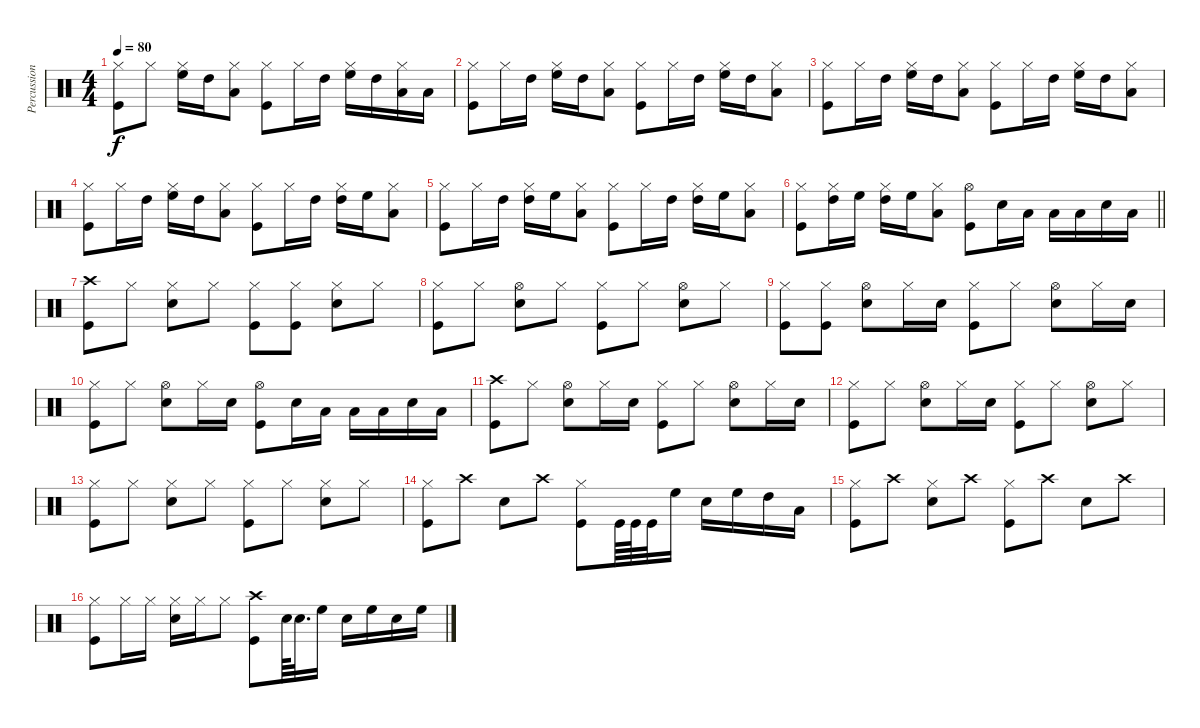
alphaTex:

\track ("Percussion" "Percussion") {instrument percussion}
\staff {score}
\articulation defaults
\ts (4 4)
\tempo 80
\clef neutral
\ks c
("Hi-Hat (closed)" "Kick (hit)").8{dy f} "Hi-Hat (closed)".8 ("Hi-Hat (closed)" "High Floor Tom (hit)").16 "High Tom (hit)".16 ("Hi-Hat (closed)" "Low Tom (hit)").8 ("Hi-Hat (closed)" "Kick (hit)").8 "Hi-Hat (closed)".16 "High Tom (hit)".16 ("Hi-Hat (closed)" "High Floor Tom (hit)").16 "High Tom (hit)".16 ("Hi-Hat (closed)" "Low Tom (hit)").16 "Low Tom (hit)".16 |
("Hi-Hat (closed)" "Kick (hit)").8 "Hi-Hat (closed)".16 "High Tom (hit)".16 ("Hi-Hat (closed)" "High Floor Tom (hit)").16 "High Tom (hit)".16 ("Hi-Hat (closed)" "Low Tom (hit)").8 ("Hi-Hat (closed)" "Kick (hit)").8 "Hi-Hat (closed)".16 "High Tom (hit)".16 ("Hi-Hat (closed)" "High Floor Tom (hit)").16 "High Tom (hit)".16 ("Hi-Hat (closed)" "Low Tom (hit)").8 |
("Hi-Hat (closed)" "Kick (hit)").8 "Hi-Hat (closed)".16 "High Tom (hit)".16 ("Hi-Hat (closed)" "High Floor Tom (hit)").16 "High Tom (hit)".16 ("Hi-Hat (closed)" "Low Tom (hit)").8 ("Hi-Hat (closed)" "Kick (hit)").8 "Hi-Hat (closed)".16 "High Tom (hit)".16 ("Hi-Hat (closed)" "High Floor Tom (hit)").16 "High Tom (hit)".16 ("Hi-Hat (closed)" "Low Tom (hit)").8 |
("Hi-Hat (closed)" "Kick (hit)").8 "Hi-Hat (closed)".16 "High Tom (hit)".16 ("Hi-Hat (closed)" "High Floor Tom (hit)").16 "High Tom (hit)".16 ("Hi-Hat (closed)" "Low Tom (hit)").8 ("Hi-Hat (closed)" "Kick (hit)").8 "Hi-Hat (closed)".16 "High Tom (hit)".16 ("Hi-Hat (closed)" "High Tom (hit)").16 "High Floor Tom (hit)".16 ("Hi-Hat (closed)" "Low Tom (hit)").8 |
("Hi-Hat (closed)" "Kick (hit)").8 "Hi-Hat (closed)".16 "High Tom (hit)".16 ("Hi-Hat (closed)" "High Tom (hit)").16 "High Floor Tom (hit)".16 ("Hi-Hat (closed)" "Low Tom (hit)").8 ("Hi-Hat (closed)" "Kick (hit)").8 "Hi-Hat (closed)".16 "High Tom (hit)".16 ("Hi-Hat (closed)" "High Tom (hit)").16 "High Floor Tom (hit)".16 ("Hi-Hat (closed)" "Low Tom (hit)").8 |
\barLineRight lightlight
("Hi-Hat (closed)" "Kick (hit)").8 ("Hi-Hat (closed)" "High Tom (hit)").16 "High Floor Tom (hit)".16 ("Hi-Hat (closed)" "High Tom (hit)").16 "High Floor Tom (hit)".16 ("Hi-Hat (closed)" "Low Tom (hit)").8 ("Hi-Hat (open)" "Kick (hit)").8 "Snare (hit) 2".16 "Low Tom (hit)".16 "Low Tom (hit)".16 "Low Tom (hit)".16 "Snare (hit) 2".16 "Low Tom (hit)".16 |
("Crash high (hit)" "Kick (hit)").8 "Hi-Hat (closed)".8 ("Hi-Hat (closed)" "Snare (hit) 2").8 "Hi-Hat (closed)".8 ("Hi-Hat (closed)" "Kick (hit)").8 ("Hi-Hat (closed)" "Kick (hit)").8 ("Hi-Hat (closed)" "Snare (hit) 2").8 "Hi-Hat (closed)".8 |
("Hi-Hat (closed)" "Kick (hit)").8 "Hi-Hat (closed)".8 ("Hi-Hat (open)" "Snare (hit) 2").8 "Hi-Hat (closed)".8 ("Hi-Hat (closed)" "Kick (hit)").8 "Hi-Hat (closed)".8 ("Hi-Hat (open)" "Snare (hit) 2").8 "Hi-Hat (closed)".8 |
("Hi-Hat (closed)" "Kick (hit)").8 ("Hi-Hat (closed)" "Kick (hit)").8 ("Hi-Hat (open)" "Snare (hit) 2").8 "Hi-Hat (closed)".16 "Snare (hit) 2".16 ("Hi-Hat (closed)" "Kick (hit)").8 "Hi-Hat (closed)".8 ("Hi-Hat (open)" "Snare (hit) 2").8 "Hi-Hat (closed)".16 "Snare (hit) 2".16 |
("Hi-Hat (closed)" "Kick (hit)").8 "Hi-Hat (closed)".8 ("Hi-Hat (open)" "Snare (hit) 2").8 "Hi-Hat (closed)".16 "Snare (hit) 2".16 ("Hi-Hat (open)" "Kick (hit)").8 "Snare (hit) 2".16 "Low Tom (hit)".16 "Low Tom (hit)".16 "Low Tom (hit)".16 "Snare (hit) 2".16 "Low Tom (hit)".16 |
("Crash high (hit)" "Kick (hit)").8 "Hi-Hat (closed)".8 ("Hi-Hat (open)" "Snare (hit) 2").8 "Hi-Hat (closed)".16 "Snare (hit) 2".16 ("Hi-Hat (closed)" "Kick (hit)").8 "Hi-Hat (closed)".8 ("Hi-Hat (open)" "Snare (hit) 2").8 "Hi-Hat (closed)".16 "Snare (hit) 2".16 |
("Hi-Hat (closed)" "Kick (hit)").8 "Hi-Hat (closed)".8 ("Hi-Hat (open)" "Snare (hit) 2").8 "Hi-Hat (closed)".16 "Snare (hit) 2".16 ("Hi-Hat (closed)" "Kick (hit)").8 "Hi-Hat (closed)".8 ("Hi-Hat (open)" "Snare (hit) 2").8 "Hi-Hat (closed)".8 |
("Hi-Hat (closed)" "Kick (hit)").8 "Hi-Hat (closed)".8 ("Hi-Hat (closed)" "Snare (hit) 2").8 "Hi-Hat (closed)".8 ("Hi-Hat (closed)" "Kick (hit)").8 "Hi-Hat (closed)".8 ("Hi-Hat (closed)" "Snare (hit) 2").8 "Hi-Hat (closed)".8 |
("Hi-Hat (closed)" "Kick (hit)").8 "Crash high (hit)".8 "Snare (hit) 2".8 "Crash high (hit)".8 ("Hi-Hat (closed)" "Kick (hit)").8 "Kick (hit)".64 "Kick (hit)".64 "Kick (hit)".32 "High Floor Tom (hit)".16 "Snare (hit) 2".16 "High Floor Tom (hit)".16 "High Tom (hit)".16 "Low Tom (hit)".16 |
("Hi-Hat (closed)" "Kick (hit)").8 "Crash high (hit)".8 ("Hi-Hat (closed)" "Snare (hit) 2").8 "Crash high (hit)".8 ("Hi-Hat (closed)" "Kick (hit)").8 "Crash high (hit)".8 "Snare (hit) 2".8 "Crash high (hit)".8 |
("Hi-Hat (closed)" "Kick (hit)").8 "Hi-Hat (closed)".16 "Hi-Hat (closed)".16 ("Hi-Hat (closed)" "Snare (hit) 2").16 "Hi-Hat (closed)".16 "Hi-Hat (closed)".8 ("Crash high (hit)" "Kick (hit)").8 "Snare (hit) 2".64 "Snare (hit) 2".32{d} "High Floor Tom (hit)".16 "Snare (hit) 2".16 "High Floor Tom (hit)".16 "Snare (hit) 2".16 "High Floor Tom (hit)".16
